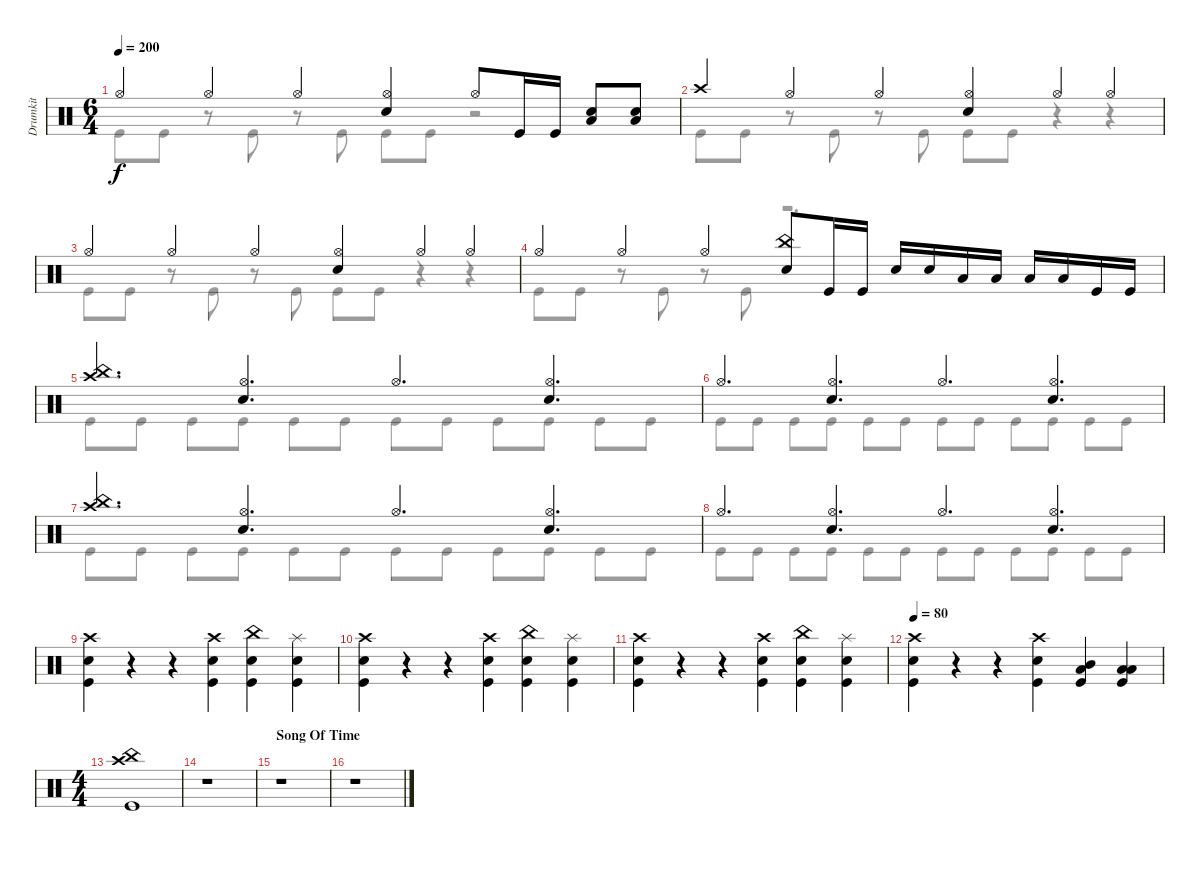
\track ("Drumkit" "Drumkit") {instrument percussion}
\staff {score}
\articulation defaults
\voice
\ts (6 4)
\tempo 200
\clef neutral
\ks c "Hi-Hat (open)".4{dy f} "Hi-Hat (open)".4 "Hi-Hat (open)".4
("Hi-Hat (open)" "Snare (hit) 2").4 "Hi-Hat (open)".8 "Kick (hit)".16 "Kick (hit)".16 ("Snare (hit) 2" "Low Floor Tom (hit)").8 ("Snare (hit) 2" "Low Floor Tom (hit)").8 |
"Crash high (hit)".4 "Hi-Hat (open)".4 "Hi-Hat (open)".4 ("Hi-Hat (open)" "Snare (hit) 2").4 "Hi-Hat (open)".4 "Hi-Hat (open)".4 |
"Hi-Hat (open)".4 "Hi-Hat (open)".4 "Hi-Hat (open)".4 ("Hi-Hat (open)" "Snare (hit) 2").4 "Hi-Hat (open)".4 "Hi-Hat (open)".4 |
"Hi-Hat (open)".4 "Hi-Hat (open)".4 "Hi-Hat (open)".4 ("China (hit)" "Snare (hit) 2").8 "Kick (hit)".16 "Kick (hit)".16 "Snare (hit) 2".16 "Snare (hit) 2".16 "Low Tom (hit)".16 "Low Tom (hit)".16 "Low Floor Tom (hit)".16 "Low Floor Tom (hit)".16 "Kick (hit)".16 "Kick (hit)".16 |
("Crash high (hit)" "China (hit)").4{d} ("Hi-Hat (open)" "Snare (hit) 2").4{d} "Hi-Hat (open)".4{d} ("Hi-Hat (open)" "Snare (hit) 2").4{d} |
"Hi-Hat (open)".4{d} ("Hi-Hat (open)" "Snare (hit) 2").4{d} "Hi-Hat (open)".4{d} ("Hi-Hat (open)" "Snare (hit) 2").4{d} |
("Crash high (hit)" "China (hit)").4{d} ("Hi-Hat (open)" "Snare (hit) 2").4{d} "Hi-Hat (open)".4{d} ("Hi-Hat (open)" "Snare (hit) 2").4{d} |
"Hi-Hat (open)".4{d} ("Hi-Hat (open)" "Snare (hit) 2").4{d} "Hi-Hat (open)".4{d} ("Hi-Hat (open)" "Snare (hit) 2").4{d} |
("Kick (hit)" "Snare (hit) 2" "Crash high (hit)").4 r.4 r.4 ("Kick (hit)" "Snare (hit) 2" "Crash high (hit)").4 ("Kick (hit)" "Snare (hit) 2" "China (hit)").4 ("Kick (hit)" "Snare (hit) 2" "Splash (hit)").4 |
("Kick (hit)" "Snare (hit) 2" "Crash high (hit)").4 r.4 r.4 ("Kick (hit)" "Snare (hit) 2" "Crash high (hit)").4 ("Kick (hit)" "Snare (hit) 2" "China (hit)").4 ("Kick (hit)" "Snare (hit) 2" "Splash (hit)").4 |
("Kick (hit)" "Snare (hit) 2" "Crash high (hit)").4 r.4 r.4 ("Kick (hit)" "Snare (hit) 2" "Crash high (hit)").4 ("Kick (hit)" "Snare (hit) 2" "China (hit)").4 ("Kick (hit)" "Snare (hit) 2" "Splash (hit)").4 |
\tempo 80
("Kick (hit)" "Snare (hit) 2" "Crash high (hit)").4 r.4 r.4 ("Kick (hit)" "Snare (hit) 2" "Crash high (hit)").4 ("Mid Tom (hit)" "Low Tom (hit)" "Kick (hit)").4 ("Low Tom (hit)" "Low Floor Tom (hit)" "Kick (hit)").4 |
\ts (4 4)
("Kick (hit)" "Crash high (hit)" "China (hit)").1 |
r.1 |
\section ("" "Song Of Time")
r.1 |
r.1
\voice
\clef neutral
\ottava regular
\simile none
\ks c "Kick (hit)".8{dy f} "Kick (hit)".8
r.8 "Kick (hit)".8 r.8 "Kick (hit)".8 "Kick (hit)".8 "Kick (hit)".8 r.2 |
"Kick (hit)".8 "Kick (hit)".8 r.8 "Kick (hit)".8 r.8 "Kick (hit)".8 "Kick (hit)".8 "Kick (hit)".8 r.4 r.4 |
"Kick (hit)".8 "Kick (hit)".8 r.8 "Kick (hit)".8 r.8 "Kick (hit)".8 "Kick (hit)".8 "Kick (hit)".8 r.4 r.4 |
"Kick (hit)".8 "Kick (hit)".8 r.8 "Kick (hit)".8 r.8 "Kick (hit)".8 r.2{d} |
"Kick (hit)".8 "Kick (hit)".8 "Kick (hit)".8 "Kick (hit)".8 "Kick (hit)".8 "Kick (hit)".8 "Kick (hit)".8 "Kick (hit)".8 "Kick (hit)".8 "Kick (hit)".8 "Kick (hit)".8 "Kick (hit)".8 |
"Kick (hit)".8 "Kick (hit)".8 "Kick (hit)".8 "Kick (hit)".8 "Kick (hit)".8 "Kick (hit)".8 "Kick (hit)".8 "Kick (hit)".8 "Kick (hit)".8 "Kick (hit)".8 "Kick (hit)".8 "Kick (hit)".8 |
"Kick (hit)".8 "Kick (hit)".8 "Kick (hit)".8 "Kick (hit)".8 "Kick (hit)".8 "Kick (hit)".8 "Kick (hit)".8 "Kick (hit)".8 "Kick (hit)".8 "Kick (hit)".8 "Kick (hit)".8 "Kick (hit)".8 |
"Kick (hit)".8 "Kick (hit)".8 "Kick (hit)".8 "Kick (hit)".8 "Kick (hit)".8 "Kick (hit)".8 "Kick (hit)".8 "Kick (hit)".8 "Kick (hit)".8 "Kick (hit)".8 "Kick (hit)".8 "Kick (hit)".8 |
|
|
|
|
|
|
|
